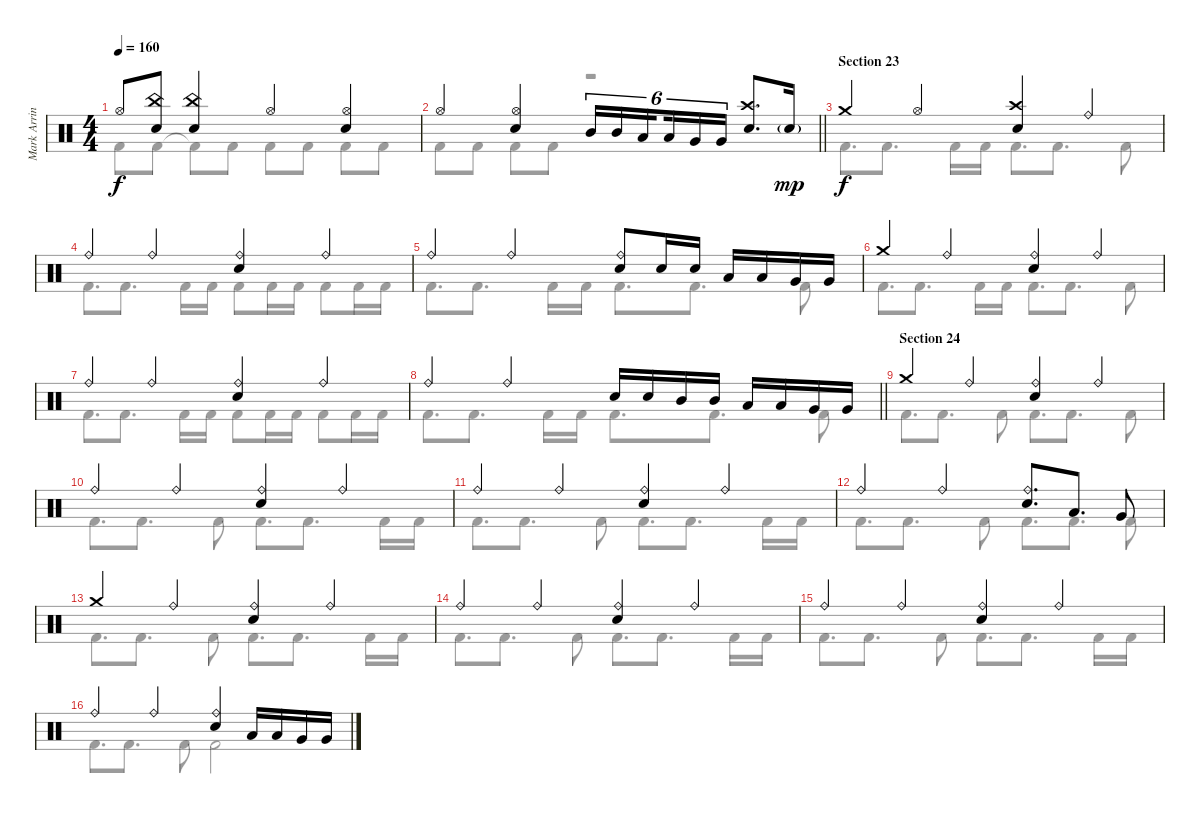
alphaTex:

\track ("Mark Arrington – drums" "Mark Arrin") {instrument percussion}
\staff {score}
\articulation defaults
\voice
\ts (4 4)
\tempo 160
\clef neutral
\ks c "Hi-Hat (open)".8{dy f}
("China (hit)" "Electric Snare (hit)").8 ("China (hit)" "Electric Snare (hit)").4 "Hi-Hat (open)".4 ("Hi-Hat (open)" "Electric Snare (hit)").4 |
\barLineRight lightlight "Hi-Hat (open)".4
("Hi-Hat (open)" "Electric Snare (hit)").4 "Mid Tom (hit)".16{tu (6 4)} "Mid Tom (hit)".16{tu (6 4)} "Low Tom (hit)".16{tu (6 4) beam splitsecondary} "Low Tom (hit)".16{tu (6 4)} "Very Low Tom (hit)".16{tu (6 4)} "Very Low Tom (hit)".16{tu (6 4)} ("Crash high (hit)" "Electric Snare (hit)").8{d} "Electric Snare (hit)"{g}.16{dy mp} |
\section ("" "Section 23")
"Crash medium (hit)".4{dy f} "Hi-Hat (open)".4 ("Crash high (hit)" "Electric Snare (hit)").4 "Ride (bell)".4 |
"Ride (bell)".4 "Ride (bell)".4 ("Ride (bell)" "Electric Snare (hit)").4 "Ride (bell)".4 |
"Ride (bell)".4 "Ride (bell)".4 ("Ride (bell)" "Electric Snare (hit)").8 "Electric Snare (hit)".16 "Electric Snare (hit)".16 "Low Tom (hit)".16 "Low Tom (hit)".16 "Very Low Tom (hit)".16 "Very Low Tom (hit)".16 |
"Crash medium (hit)".4 "Ride (bell)".4 ("Ride (bell)" "Electric Snare (hit)").4 "Ride (bell)".4 |
"Ride (bell)".4 "Ride (bell)".4 ("Ride (bell)" "Electric Snare (hit)").4 "Ride (bell)".4 |
\barLineRight lightlight "Ride (bell)".4 "Ride (bell)".4 "Electric Snare (hit)".16 "Electric Snare (hit)".16 "Mid Tom (hit)".16 "Mid Tom (hit)".16 "Low Tom (hit)".16 "Low Tom (hit)".16 "Very Low Tom (hit)".16 "Very Low Tom (hit)".16
|
\section ("" "Section 24")
"Crash medium (hit)".4 "Ride (bell)".4 ("Ride (bell)" "Electric Snare (hit)").4 "Ride (bell)".4 |
"Ride (bell)".4 "Ride (bell)".4 ("Ride (bell)" "Electric Snare (hit)").4 "Ride (bell)".4 |
"Ride (bell)".4 "Ride (bell)".4 ("Ride (bell)" "Electric Snare (hit)").4 "Ride (bell)".4 |
"Ride (bell)".4 "Ride (bell)".4 ("Ride (bell)" "Electric Snare (hit)").8{d} "Low Tom (hit)".8{d} "Very Low Tom (hit)".8 |
"Crash medium (hit)".4 "Ride (bell)".4 ("Ride (bell)" "Electric Snare (hit)").4 "Ride (bell)".4 |
"Ride (bell)".4 "Ride (bell)".4 ("Ride (bell)" "Electric Snare (hit)").4 "Ride (bell)".4 |
"Ride (bell)".4 "Ride (bell)".4 ("Ride (bell)" "Electric Snare (hit)").4 "Ride (bell)".4 |
"Ride (bell)".4 "Ride (bell)".4 ("Ride (bell)" "Electric Snare (hit)").4 "Low Tom (hit)".16 "Low Tom (hit)".16 "Very Low Tom (hit)".16 "Very Low Tom (hit)".16
\voice
\clef neutral
\ottava regular
\simile none
\ks c "Kick (hit) 2".8{dy f} "Kick (hit) 2".8 "Kick (hit) 2"{t}.8 "Kick (hit) 2".8 "Kick (hit) 2".8 "Kick (hit) 2".8 "Kick (hit) 2".8 "Kick (hit) 2".8
|
\barLineRight lightlight "Kick (hit) 2".8 "Kick (hit) 2".8 "Kick (hit) 2".8 "Kick (hit) 2".8
r.2 |
"Kick (hit) 2".8{d} "Kick (hit) 2".8{d} "Kick (hit) 2".16 "Kick (hit) 2".16 "Kick (hit) 2".8{d} "Kick (hit) 2".8{d} "Kick (hit) 2".8 |
"Kick (hit) 2".8{d} "Kick (hit) 2".8{d} "Kick (hit) 2".16 "Kick (hit) 2".16 "Kick (hit) 2".8 "Kick (hit) 2".16 "Kick (hit) 2".16 "Kick (hit) 2".8 "Kick (hit) 2".16 "Kick (hit) 2".16 |
"Kick (hit) 2".8{d} "Kick (hit) 2".8{d} "Kick (hit) 2".16 "Kick (hit) 2".16 "Kick (hit) 2".8{d} "Kick (hit) 2".8{d} "Kick (hit) 2".8 |
"Kick (hit) 2".8{d} "Kick (hit) 2".8{d} "Kick (hit) 2".16 "Kick (hit) 2".16 "Kick (hit) 2".8{d} "Kick (hit) 2".8{d} "Kick (hit) 2".8 |
"Kick (hit) 2".8{d} "Kick (hit) 2".8{d} "Kick (hit) 2".16 "Kick (hit) 2".16 "Kick (hit) 2".8 "Kick (hit) 2".16 "Kick (hit) 2".16 "Kick (hit) 2".8 "Kick (hit) 2".16 "Kick (hit) 2".16 |
\barLineRight lightlight "Kick (hit) 2".8{d} "Kick (hit) 2".8{d} "Kick (hit) 2".16 "Kick (hit) 2".16 "Kick (hit) 2".8{d} "Kick (hit) 2".8{d} "Kick (hit) 2".8
|
"Kick (hit) 2".8{d} "Kick (hit) 2".8{d} "Kick (hit) 2".8 "Kick (hit) 2".8{d} "Kick (hit) 2".8{d} "Kick (hit) 2".8 |
"Kick (hit) 2".8{d} "Kick (hit) 2".8{d} "Kick (hit) 2".8 "Kick (hit) 2".8{d} "Kick (hit) 2".8{d} "Kick (hit) 2".16 "Kick (hit) 2".16 |
"Kick (hit) 2".8{d} "Kick (hit) 2".8{d} "Kick (hit) 2".8 "Kick (hit) 2".8{d} "Kick (hit) 2".8{d} "Kick (hit) 2".16 "Kick (hit) 2".16 |
"Kick (hit) 2".8{d} "Kick (hit) 2".8{d} "Kick (hit) 2".8 "Kick (hit) 2".8{d} "Kick (hit) 2".8{d} "Kick (hit) 2".8 |
"Kick (hit) 2".8{d} "Kick (hit) 2".8{d} "Kick (hit) 2".8 "Kick (hit) 2".8{d} "Kick (hit) 2".8{d} "Kick (hit) 2".16 "Kick (hit) 2".16 |
"Kick (hit) 2".8{d} "Kick (hit) 2".8{d} "Kick (hit) 2".8 "Kick (hit) 2".8{d} "Kick (hit) 2".8{d} "Kick (hit) 2".16 "Kick (hit) 2".16 |
"Kick (hit) 2".8{d} "Kick (hit) 2".8{d} "Kick (hit) 2".8 "Kick (hit) 2".8{d} "Kick (hit) 2".8{d} "Kick (hit) 2".16 "Kick (hit) 2".16 |
"Kick (hit) 2".8{d} "Kick (hit) 2".8{d} "Kick (hit) 2".8 "Kick (hit) 2".2
